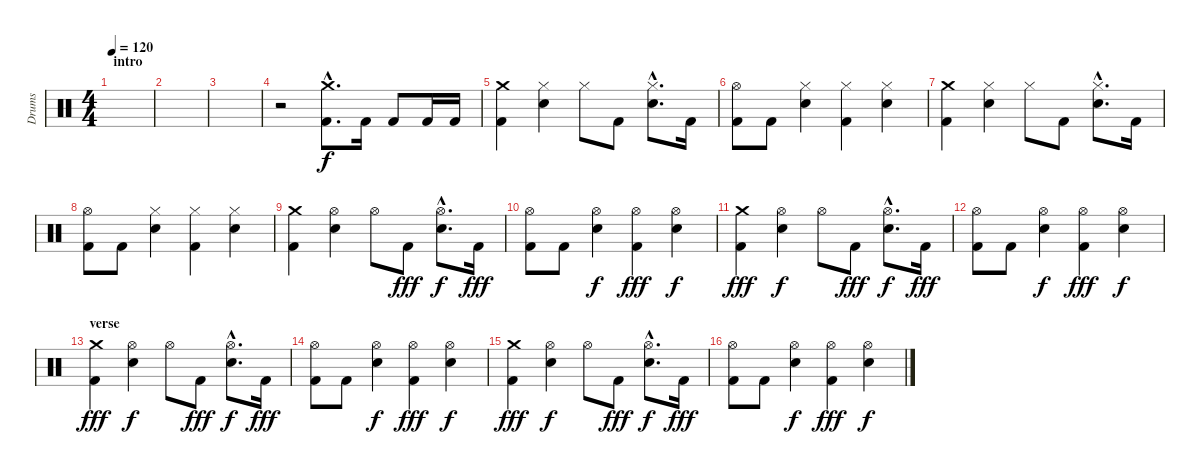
\track ("Drums" "Drums") {instrument percussion}
\staff {score}
\articulation defaults
\ts (4 4)
\section ("" "intro")
\tempo 120
\clef neutral
\ks c
|
|
|
r.2 ("Crash medium (hit)"{hac} "Kick (hit) 2"{hac}).8{d} "Kick (hit) 2".16 "Kick (hit) 2".8 "Kick (hit) 2".16 "Kick (hit) 2".16 |
("Crash medium (hit)" "Kick (hit) 2").4 ("Hi-Hat (closed)" "Electric Snare (hit)").4 "Hi-Hat (closed)".8 "Kick (hit) 2".8 ("Hi-Hat (closed)"{hac} "Electric Snare (hit)"{hac}).8{d} "Kick (hit) 2".16 |
("Hi-Hat (open)" "Kick (hit) 2").8 "Kick (hit) 2".8 ("Hi-Hat (closed)" "Electric Snare (hit)").4 ("Hi-Hat (closed)" "Kick (hit) 2").4 ("Hi-Hat (closed)" "Electric Snare (hit)").4 |
("Crash medium (hit)" "Kick (hit) 2").4 ("Hi-Hat (closed)" "Electric Snare (hit)").4 "Hi-Hat (closed)".8 "Kick (hit) 2".8 ("Hi-Hat (closed)"{hac} "Electric Snare (hit)"{hac}).8{d} "Kick (hit) 2".16 |
("Hi-Hat (open)" "Kick (hit) 2").8 "Kick (hit) 2".8 ("Hi-Hat (closed)" "Electric Snare (hit)").4 ("Hi-Hat (closed)" "Kick (hit) 2").4 ("Hi-Hat (closed)" "Electric Snare (hit)").4 |
("Crash medium (hit)" "Kick (hit) 2").4 ("Hi-Hat (open)" "Electric Snare (hit)").4{dy f} "Hi-Hat (open)".8 "Kick (hit) 2".8{dy fff} ("Hi-Hat (open)"{hac} "Electric Snare (hit)"{hac}).8{d dy f} "Kick (hit) 2".16{dy fff} |
("Hi-Hat (open)" "Kick (hit) 2").8 "Kick (hit) 2".8 ("Hi-Hat (open)" "Electric Snare (hit)").4{dy f} ("Hi-Hat (open)" "Kick (hit) 2").4{dy fff} ("Hi-Hat (open)" "Electric Snare (hit)").4{dy f} |
("Crash medium (hit)" "Kick (hit) 2").4{dy fff} ("Hi-Hat (open)" "Electric Snare (hit)").4{dy f} "Hi-Hat (open)".8 "Kick (hit) 2".8{dy fff} ("Hi-Hat (open)"{hac} "Electric Snare (hit)"{hac}).8{d dy f} "Kick (hit) 2".16{dy fff} |
("Hi-Hat (open)" "Kick (hit) 2").8 "Kick (hit) 2".8 ("Hi-Hat (open)" "Electric Snare (hit)").4{dy f} ("Hi-Hat (open)" "Kick (hit) 2").4{dy fff} ("Hi-Hat (open)" "Electric Snare (hit)").4{dy f} |
\section ("" "verse")
("Crash medium (hit)" "Kick (hit) 2").4{dy fff} ("Hi-Hat (open)" "Electric Snare (hit)").4{dy f} "Hi-Hat (open)".8 "Kick (hit) 2".8{dy fff} ("Hi-Hat (open)"{hac} "Electric Snare (hit)"{hac}).8{d dy f} "Kick (hit) 2".16{dy fff} |
("Hi-Hat (open)" "Kick (hit) 2").8 "Kick (hit) 2".8 ("Hi-Hat (open)" "Electric Snare (hit)").4{dy f} ("Hi-Hat (open)" "Kick (hit) 2").4{dy fff} ("Hi-Hat (open)" "Electric Snare (hit)").4{dy f} |
("Crash medium (hit)" "Kick (hit) 2").4{dy fff} ("Hi-Hat (open)" "Electric Snare (hit)").4{dy f} "Hi-Hat (open)".8 "Kick (hit) 2".8{dy fff} ("Hi-Hat (open)"{hac} "Electric Snare (hit)"{hac}).8{d dy f} "Kick (hit) 2".16{dy fff} |
("Hi-Hat (open)" "Kick (hit) 2").8 "Kick (hit) 2".8 ("Hi-Hat (open)" "Electric Snare (hit)").4{dy f} ("Hi-Hat (open)" "Kick (hit) 2").4{dy fff} ("Hi-Hat (open)" "Electric Snare (hit)").4{dy f}
